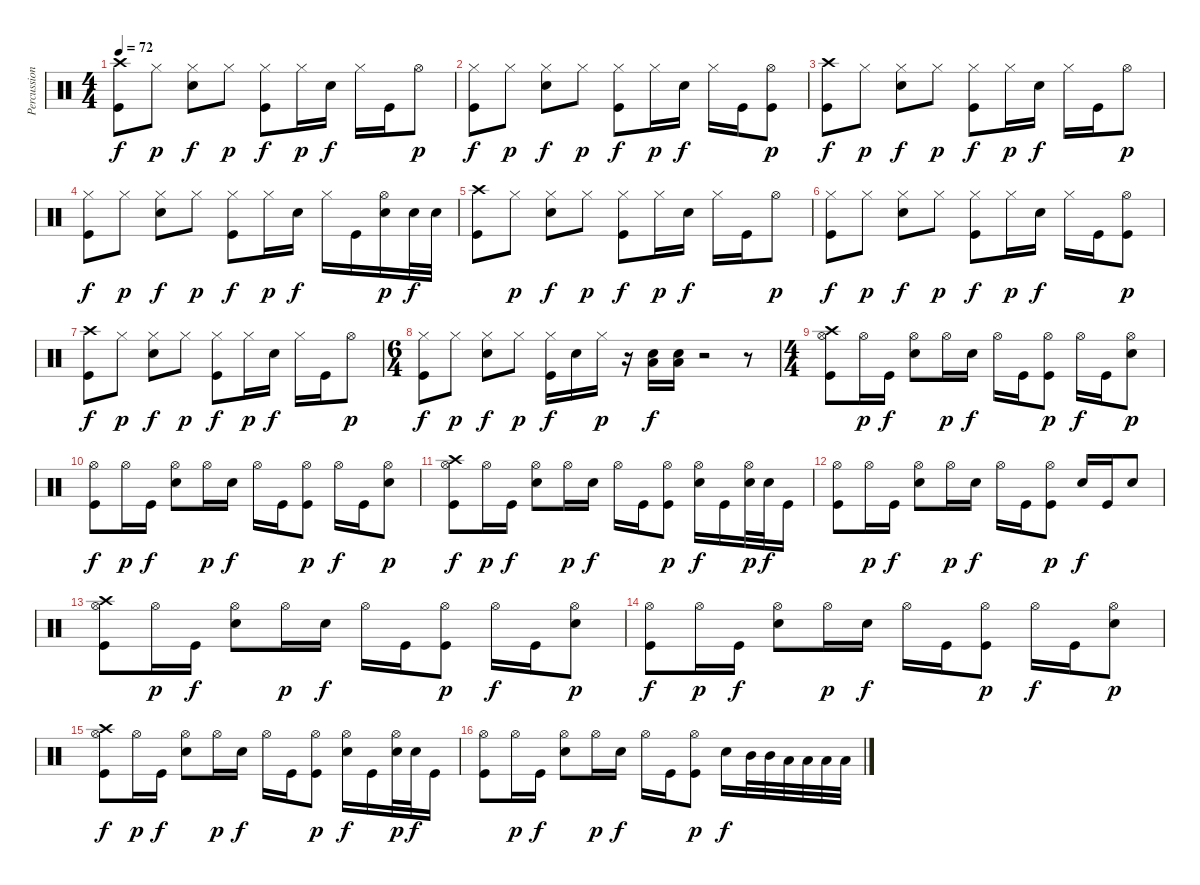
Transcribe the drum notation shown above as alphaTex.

\track ("Percussion" "Percussion") {instrument percussion}
\staff {score}
\articulation defaults
\ts (4 4)
\tempo 72
\clef neutral
\ks c
("Crash high (hit)" "Kick (hit)").8{dy f} "Hi-Hat (closed)".8{dy p} ("Hi-Hat (closed)" "Electric Snare (hit)").8{dy f} "Hi-Hat (closed)".8{dy p} ("Hi-Hat (closed)" "Kick (hit)").8{dy f} "Hi-Hat (closed)".16{dy p} "Electric Snare (hit)".16{dy f} "Hi-Hat (closed)".16 "Kick (hit)".16 "Hi-Hat (open)".8{dy p} |
("Hi-Hat (closed)" "Kick (hit)").8{dy f} "Hi-Hat (closed)".8{dy p} ("Hi-Hat (closed)" "Electric Snare (hit)").8{dy f} "Hi-Hat (closed)".8{dy p} ("Hi-Hat (closed)" "Kick (hit)").8{dy f} "Hi-Hat (closed)".16{dy p} "Electric Snare (hit)".16{dy f} "Hi-Hat (closed)".16 "Kick (hit)".16 ("Hi-Hat (open)" "Kick (hit)").8{dy p} |
("Crash high (hit)" "Kick (hit)").8{dy f} "Hi-Hat (closed)".8{dy p} ("Hi-Hat (closed)" "Electric Snare (hit)").8{dy f} "Hi-Hat (closed)".8{dy p} ("Hi-Hat (closed)" "Kick (hit)").8{dy f} "Hi-Hat (closed)".16{dy p} "Electric Snare (hit)".16{dy f} "Hi-Hat (closed)".16 "Kick (hit)".16 "Hi-Hat (open)".8{dy p} |
("Hi-Hat (closed)" "Kick (hit)").8{dy f} "Hi-Hat (closed)".8{dy p} ("Hi-Hat (closed)" "Electric Snare (hit)").8{dy f} "Hi-Hat (closed)".8{dy p} ("Hi-Hat (closed)" "Kick (hit)").8{dy f} "Hi-Hat (closed)".16{dy p} "Electric Snare (hit)".16{dy f} "Hi-Hat (closed)".16 "Kick (hit)".16 ("Hi-Hat (open)" "Electric Snare (hit)").16{dy p} "Electric Snare (hit)".32{dy f} "Electric Snare (hit)".32 |
("Crash high (hit)" "Kick (hit)").8 "Hi-Hat (closed)".8{dy p} ("Hi-Hat (closed)" "Electric Snare (hit)").8{dy f} "Hi-Hat (closed)".8{dy p} ("Hi-Hat (closed)" "Kick (hit)").8{dy f} "Hi-Hat (closed)".16{dy p} "Electric Snare (hit)".16{dy f} "Hi-Hat (closed)".16 "Kick (hit)".16 "Hi-Hat (open)".8{dy p} |
("Hi-Hat (closed)" "Kick (hit)").8{dy f} "Hi-Hat (closed)".8{dy p} ("Hi-Hat (closed)" "Electric Snare (hit)").8{dy f} "Hi-Hat (closed)".8{dy p} ("Hi-Hat (closed)" "Kick (hit)").8{dy f} "Hi-Hat (closed)".16{dy p} "Electric Snare (hit)".16{dy f} "Hi-Hat (closed)".16 "Kick (hit)".16 ("Hi-Hat (open)" "Kick (hit)").8{dy p} |
("Crash high (hit)" "Kick (hit)").8{dy f} "Hi-Hat (closed)".8{dy p} ("Hi-Hat (closed)" "Electric Snare (hit)").8{dy f} "Hi-Hat (closed)".8{dy p} ("Hi-Hat (closed)" "Kick (hit)").8{dy f} "Hi-Hat (closed)".16{dy p} "Electric Snare (hit)".16{dy f} "Hi-Hat (closed)".16 "Kick (hit)".16 "Hi-Hat (open)".8{dy p} |
\ts (6 4)
("Hi-Hat (closed)" "Kick (hit)").8{dy f} "Hi-Hat (closed)".8{dy p} ("Hi-Hat (closed)" "Electric Snare (hit)").8{dy f} "Hi-Hat (closed)".8{dy p} ("Hi-Hat (closed)" "Kick (hit)").16{dy f} "Electric Snare (hit)".16 "Hi-Hat (closed)".16{dy p} r.16 ("Low Floor Tom (hit)" "Electric Snare (hit)").16{dy f} ("Low Floor Tom (hit)" "Electric Snare (hit)").16 r.2 r.8 |
\ts (4 4)
("Crash high (hit)" "Hi-Hat (open)" "Kick (hit)").8 "Hi-Hat (open)".16{dy p} "Kick (hit)".16{dy f} ("Hi-Hat (open)" "Electric Snare (hit)").8 "Hi-Hat (open)".16{dy p} "Electric Snare (hit)".16{dy f} "Hi-Hat (open)".16 "Kick (hit)".16 ("Hi-Hat (open)" "Kick (hit)").8{dy p} "Hi-Hat (open)".16{dy f} "Kick (hit)".16 ("Hi-Hat (open)" "Electric Snare (hit)").8{dy p} |
("Hi-Hat (open)" "Kick (hit)").8{dy f} "Hi-Hat (open)".16{dy p} "Kick (hit)".16{dy f} ("Hi-Hat (open)" "Electric Snare (hit)").8 "Hi-Hat (open)".16{dy p} "Electric Snare (hit)".16{dy f} "Hi-Hat (open)".16 "Kick (hit)".16 ("Hi-Hat (open)" "Kick (hit)").8{dy p} "Hi-Hat (open)".16{dy f} "Kick (hit)".16 ("Hi-Hat (open)" "Electric Snare (hit)").8{dy p} |
("Crash high (hit)" "Hi-Hat (open)" "Kick (hit)").8{dy f} "Hi-Hat (open)".16{dy p} "Kick (hit)".16{dy f} ("Hi-Hat (open)" "Electric Snare (hit)").8 "Hi-Hat (open)".16{dy p} "Electric Snare (hit)".16{dy f} "Hi-Hat (open)".16 "Kick (hit)".16 ("Hi-Hat (open)" "Kick (hit)").8{dy p} ("Hi-Hat (open)" "Electric Snare (hit)").16{dy f} "Kick (hit)".16 ("Hi-Hat (open)" "Electric Snare (hit)").32{dy p} "Electric Snare (hit)".32{dy f} "Kick (hit)".16 |
("Hi-Hat (open)" "Kick (hit)").8 "Hi-Hat (open)".16{dy p} "Kick (hit)".16{dy f} ("Hi-Hat (open)" "Electric Snare (hit)").8 "Hi-Hat (open)".16{dy p} "Electric Snare (hit)".16{dy f} "Hi-Hat (open)".16 "Kick (hit)".16 ("Hi-Hat (open)" "Kick (hit)").8{dy p} "Electric Snare (hit)".16{dy f} "Kick (hit)".16 "Electric Snare (hit)".8 |
("Crash high (hit)" "Hi-Hat (open)" "Kick (hit)").8 "Hi-Hat (open)".16{dy p} "Kick (hit)".16{dy f} ("Hi-Hat (open)" "Electric Snare (hit)").8 "Hi-Hat (open)".16{dy p} "Electric Snare (hit)".16{dy f} "Hi-Hat (open)".16 "Kick (hit)".16 ("Hi-Hat (open)" "Kick (hit)").8{dy p} "Hi-Hat (open)".16{dy f} "Kick (hit)".16 ("Hi-Hat (open)" "Electric Snare (hit)").8{dy p} |
("Hi-Hat (open)" "Kick (hit)").8{dy f} "Hi-Hat (open)".16{dy p} "Kick (hit)".16{dy f} ("Hi-Hat (open)" "Electric Snare (hit)").8 "Hi-Hat (open)".16{dy p} "Electric Snare (hit)".16{dy f} "Hi-Hat (open)".16 "Kick (hit)".16 ("Hi-Hat (open)" "Kick (hit)").8{dy p} "Hi-Hat (open)".16{dy f} "Kick (hit)".16 ("Hi-Hat (open)" "Electric Snare (hit)").8{dy p} |
("Crash high (hit)" "Hi-Hat (open)" "Kick (hit)").8{dy f} "Hi-Hat (open)".16{dy p} "Kick (hit)".16{dy f} ("Hi-Hat (open)" "Electric Snare (hit)").8 "Hi-Hat (open)".16{dy p} "Electric Snare (hit)".16{dy f} "Hi-Hat (open)".16 "Kick (hit)".16 ("Hi-Hat (open)" "Kick (hit)").8{dy p} ("Hi-Hat (open)" "Electric Snare (hit)").16{dy f} "Kick (hit)".16 ("Hi-Hat (open)" "Electric Snare (hit)").32{dy p} "Electric Snare (hit)".32{dy f} "Kick (hit)".16 |
("Hi-Hat (open)" "Kick (hit)").8 "Hi-Hat (open)".16{dy p} "Kick (hit)".16{dy f} ("Hi-Hat (open)" "Electric Snare (hit)").8 "Hi-Hat (open)".16{dy p} "Electric Snare (hit)".16{dy f} "Hi-Hat (open)".16 "Kick (hit)".16 ("Hi-Hat (open)" "Kick (hit)").8{dy p} "Electric Snare (hit)".16{dy f} "Mid Tom (hit)".32 "Mid Tom (hit)".32 "Low Tom (hit)".32 "Low Tom (hit)".32 "Low Tom (hit)".32 "Low Floor Tom (hit)".32
